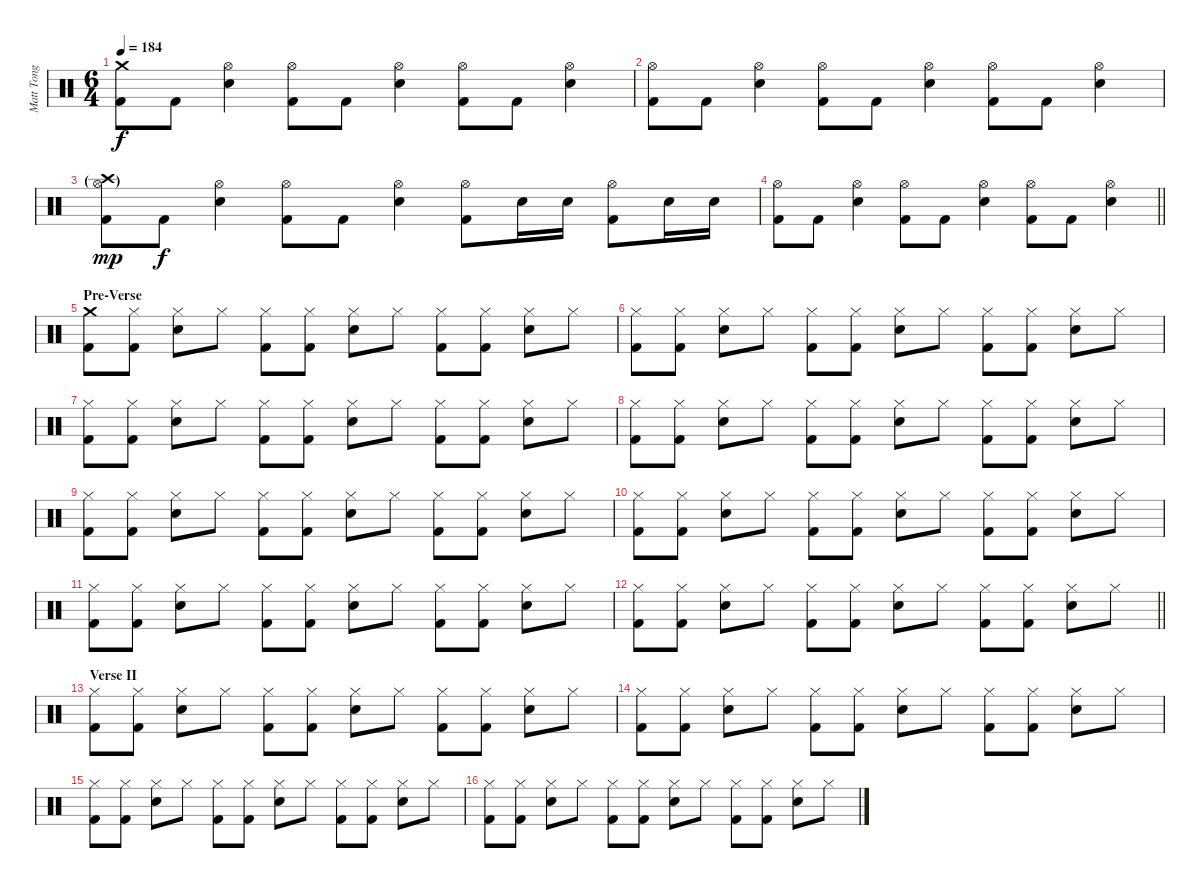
\track ("Matt Tong" "Matt Tong") {instrument percussion}
\staff {score}
\articulation defaults
\ts (6 4)
\tempo 184
\clef neutral
\ks c
("Crash medium (hit)" "Kick (hit) 2").8{dy f} "Kick (hit) 2".8 ("Hi-Hat (open)" "Electric Snare (hit)").4 ("Hi-Hat (open)" "Kick (hit) 2").8 "Kick (hit) 2".8 ("Hi-Hat (open)" "Electric Snare (hit)").4 ("Hi-Hat (open)" "Kick (hit) 2").8 "Kick (hit) 2".8 ("Hi-Hat (open)" "Electric Snare (hit)").4 |
("Hi-Hat (open)" "Kick (hit) 2").8 "Kick (hit) 2".8 ("Hi-Hat (open)" "Electric Snare (hit)").4 ("Hi-Hat (open)" "Kick (hit) 2").8 "Kick (hit) 2".8 ("Hi-Hat (open)" "Electric Snare (hit)").4 ("Hi-Hat (open)" "Kick (hit) 2").8 "Kick (hit) 2".8 ("Hi-Hat (open)" "Electric Snare (hit)").4 |
("Crash high (hit)"{g} "Hi-Hat (open)"{g} "Kick (hit) 2").8{dy mp} "Kick (hit) 2".8{dy f} ("Hi-Hat (open)" "Electric Snare (hit)").4 ("Hi-Hat (open)" "Kick (hit) 2").8 "Kick (hit) 2".8 ("Hi-Hat (open)" "Electric Snare (hit)").4 ("Hi-Hat (open)" "Kick (hit) 2").8 "Electric Snare (hit)".16 "Electric Snare (hit)".16 ("Hi-Hat (open)" "Kick (hit) 2").8 "Electric Snare (hit)".16 "Electric Snare (hit)".16 |
\barLineRight lightlight
("Hi-Hat (open)" "Kick (hit) 2").8 "Kick (hit) 2".8 ("Hi-Hat (open)" "Electric Snare (hit)").4 ("Hi-Hat (open)" "Kick (hit) 2").8 "Kick (hit) 2".8 ("Hi-Hat (open)" "Electric Snare (hit)").4 ("Hi-Hat (open)" "Kick (hit) 2").8 "Kick (hit) 2".8 ("Hi-Hat (open)" "Electric Snare (hit)").4 |
\section ("" "Pre-Verse")
("Crash medium (hit)" "Kick (hit) 2").8 ("Hi-Hat (closed)" "Kick (hit) 2").8 ("Hi-Hat (closed)" "Electric Snare (hit)").8 "Hi-Hat (closed)".8 ("Hi-Hat (closed)" "Kick (hit) 2").8 ("Hi-Hat (closed)" "Kick (hit) 2").8 ("Hi-Hat (closed)" "Electric Snare (hit)").8 "Hi-Hat (closed)".8 ("Hi-Hat (closed)" "Kick (hit) 2").8 ("Hi-Hat (closed)" "Kick (hit) 2").8 ("Hi-Hat (closed)" "Electric Snare (hit)").8 "Hi-Hat (closed)".8 |
("Hi-Hat (closed)" "Kick (hit) 2").8 ("Hi-Hat (closed)" "Kick (hit) 2").8 ("Hi-Hat (closed)" "Electric Snare (hit)").8 "Hi-Hat (closed)".8 ("Hi-Hat (closed)" "Kick (hit) 2").8 ("Hi-Hat (closed)" "Kick (hit) 2").8 ("Hi-Hat (closed)" "Electric Snare (hit)").8 "Hi-Hat (closed)".8 ("Hi-Hat (closed)" "Kick (hit) 2").8 ("Hi-Hat (closed)" "Kick (hit) 2").8 ("Hi-Hat (closed)" "Electric Snare (hit)").8 "Hi-Hat (closed)".8 |
("Hi-Hat (closed)" "Kick (hit) 2").8 ("Hi-Hat (closed)" "Kick (hit) 2").8 ("Hi-Hat (closed)" "Electric Snare (hit)").8 "Hi-Hat (closed)".8 ("Hi-Hat (closed)" "Kick (hit) 2").8 ("Hi-Hat (closed)" "Kick (hit) 2").8 ("Hi-Hat (closed)" "Electric Snare (hit)").8 "Hi-Hat (closed)".8 ("Hi-Hat (closed)" "Kick (hit) 2").8 ("Hi-Hat (closed)" "Kick (hit) 2").8 ("Hi-Hat (closed)" "Electric Snare (hit)").8 "Hi-Hat (closed)".8 |
("Hi-Hat (closed)" "Kick (hit) 2").8 ("Hi-Hat (closed)" "Kick (hit) 2").8 ("Hi-Hat (closed)" "Electric Snare (hit)").8 "Hi-Hat (closed)".8 ("Hi-Hat (closed)" "Kick (hit) 2").8 ("Hi-Hat (closed)" "Kick (hit) 2").8 ("Hi-Hat (closed)" "Electric Snare (hit)").8 "Hi-Hat (closed)".8 ("Hi-Hat (closed)" "Kick (hit) 2").8 ("Hi-Hat (closed)" "Kick (hit) 2").8 ("Hi-Hat (closed)" "Electric Snare (hit)").8 "Hi-Hat (closed)".8 |
("Hi-Hat (closed)" "Kick (hit) 2").8 ("Hi-Hat (closed)" "Kick (hit) 2").8 ("Hi-Hat (closed)" "Electric Snare (hit)").8 "Hi-Hat (closed)".8 ("Hi-Hat (closed)" "Kick (hit) 2").8 ("Hi-Hat (closed)" "Kick (hit) 2").8 ("Hi-Hat (closed)" "Electric Snare (hit)").8 "Hi-Hat (closed)".8 ("Hi-Hat (closed)" "Kick (hit) 2").8 ("Hi-Hat (closed)" "Kick (hit) 2").8 ("Hi-Hat (closed)" "Electric Snare (hit)").8 "Hi-Hat (closed)".8 |
("Hi-Hat (closed)" "Kick (hit) 2").8 ("Hi-Hat (closed)" "Kick (hit) 2").8 ("Hi-Hat (closed)" "Electric Snare (hit)").8 "Hi-Hat (closed)".8 ("Hi-Hat (closed)" "Kick (hit) 2").8 ("Hi-Hat (closed)" "Kick (hit) 2").8 ("Hi-Hat (closed)" "Electric Snare (hit)").8 "Hi-Hat (closed)".8 ("Hi-Hat (closed)" "Kick (hit) 2").8 ("Hi-Hat (closed)" "Kick (hit) 2").8 ("Hi-Hat (closed)" "Electric Snare (hit)").8 "Hi-Hat (closed)".8 |
("Hi-Hat (closed)" "Kick (hit) 2").8 ("Hi-Hat (closed)" "Kick (hit) 2").8 ("Hi-Hat (closed)" "Electric Snare (hit)").8 "Hi-Hat (closed)".8 ("Hi-Hat (closed)" "Kick (hit) 2").8 ("Hi-Hat (closed)" "Kick (hit) 2").8 ("Hi-Hat (closed)" "Electric Snare (hit)").8 "Hi-Hat (closed)".8 ("Hi-Hat (closed)" "Kick (hit) 2").8 ("Hi-Hat (closed)" "Kick (hit) 2").8 ("Hi-Hat (closed)" "Electric Snare (hit)").8 "Hi-Hat (closed)".8 |
\barLineRight lightlight
("Hi-Hat (closed)" "Kick (hit) 2").8 ("Hi-Hat (closed)" "Kick (hit) 2").8 ("Hi-Hat (closed)" "Electric Snare (hit)").8 "Hi-Hat (closed)".8 ("Hi-Hat (closed)" "Kick (hit) 2").8 ("Hi-Hat (closed)" "Kick (hit) 2").8 ("Hi-Hat (closed)" "Electric Snare (hit)").8 "Hi-Hat (closed)".8 ("Hi-Hat (closed)" "Kick (hit) 2").8 ("Hi-Hat (closed)" "Kick (hit) 2").8 ("Hi-Hat (closed)" "Electric Snare (hit)").8 "Hi-Hat (closed)".8 |
\section ("" "Verse II")
("Hi-Hat (closed)" "Kick (hit) 2").8 ("Hi-Hat (closed)" "Kick (hit) 2").8 ("Hi-Hat (closed)" "Electric Snare (hit)").8 "Hi-Hat (closed)".8 ("Hi-Hat (closed)" "Kick (hit) 2").8 ("Hi-Hat (closed)" "Kick (hit) 2").8 ("Hi-Hat (closed)" "Electric Snare (hit)").8 "Hi-Hat (closed)".8 ("Hi-Hat (closed)" "Kick (hit) 2").8 ("Hi-Hat (closed)" "Kick (hit) 2").8 ("Hi-Hat (closed)" "Electric Snare (hit)").8 "Hi-Hat (closed)".8 |
("Hi-Hat (closed)" "Kick (hit) 2").8 ("Hi-Hat (closed)" "Kick (hit) 2").8 ("Hi-Hat (closed)" "Electric Snare (hit)").8 "Hi-Hat (closed)".8 ("Hi-Hat (closed)" "Kick (hit) 2").8 ("Hi-Hat (closed)" "Kick (hit) 2").8 ("Hi-Hat (closed)" "Electric Snare (hit)").8 "Hi-Hat (closed)".8 ("Hi-Hat (closed)" "Kick (hit) 2").8 ("Hi-Hat (closed)" "Kick (hit) 2").8 ("Hi-Hat (closed)" "Electric Snare (hit)").8 "Hi-Hat (closed)".8 |
("Hi-Hat (closed)" "Kick (hit) 2").8 ("Hi-Hat (closed)" "Kick (hit) 2").8 ("Hi-Hat (closed)" "Electric Snare (hit)").8 "Hi-Hat (closed)".8 ("Hi-Hat (closed)" "Kick (hit) 2").8 ("Hi-Hat (closed)" "Kick (hit) 2").8 ("Hi-Hat (closed)" "Electric Snare (hit)").8 "Hi-Hat (closed)".8 ("Hi-Hat (closed)" "Kick (hit) 2").8 ("Hi-Hat (closed)" "Kick (hit) 2").8 ("Hi-Hat (closed)" "Electric Snare (hit)").8 "Hi-Hat (closed)".8 |
("Hi-Hat (closed)" "Kick (hit) 2").8 ("Hi-Hat (closed)" "Kick (hit) 2").8 ("Hi-Hat (closed)" "Electric Snare (hit)").8 "Hi-Hat (closed)".8 ("Hi-Hat (closed)" "Kick (hit) 2").8 ("Hi-Hat (closed)" "Kick (hit) 2").8 ("Hi-Hat (closed)" "Electric Snare (hit)").8 "Hi-Hat (closed)".8 ("Hi-Hat (closed)" "Kick (hit) 2").8 ("Hi-Hat (closed)" "Kick (hit) 2").8 ("Hi-Hat (closed)" "Electric Snare (hit)").8 "Hi-Hat (closed)".8
